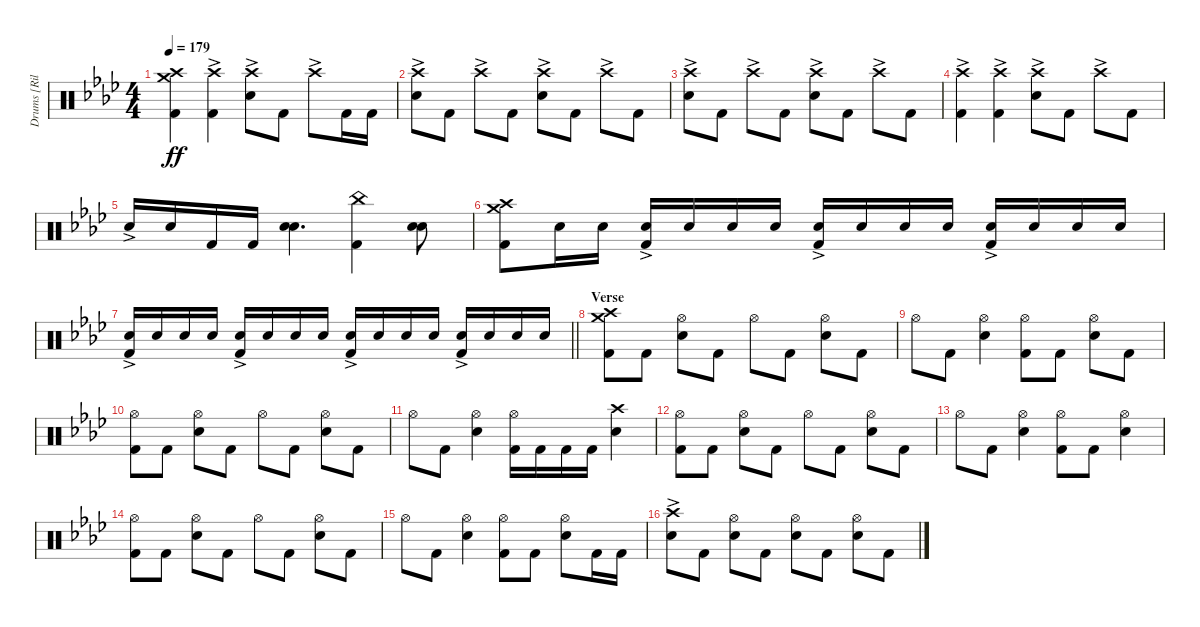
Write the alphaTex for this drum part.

\track ("Drums [Riley]" "Drums [Ril") {instrument percussion}
\staff {score}
\articulation defaults
\ts (4 4)
\tempo 179
\clef neutral
\ks ab
("Crash medium (hit)" "Crash high (hit)" "Kick (hit) 2").4{dy ff} ("Crash high (hit)"{ac} "Kick (hit) 2").4 ("Crash high (hit)"{ac} "Electric Snare (hit)").8 "Kick (hit) 2".8 "Crash high (hit)"{ac}.8 "Kick (hit) 2".16 "Kick (hit) 2".16 |
("Crash high (hit)"{ac} "Electric Snare (hit)").8 "Kick (hit) 2".8 "Crash high (hit)"{ac}.8 "Kick (hit) 2".8 ("Crash high (hit)"{ac} "Electric Snare (hit)").8 "Kick (hit) 2".8 "Crash high (hit)"{ac}.8 "Kick (hit) 2".8 |
("Crash high (hit)"{ac} "Electric Snare (hit)").8 "Kick (hit) 2".8 "Crash high (hit)"{ac}.8 "Kick (hit) 2".8 ("Crash high (hit)"{ac} "Electric Snare (hit)").8 "Kick (hit) 2".8 "Crash high (hit)"{ac}.8 "Kick (hit) 2".8 |
("Crash high (hit)"{ac} "Kick (hit) 2").4 ("Crash high (hit)"{ac} "Kick (hit) 2").4 ("Crash high (hit)"{ac} "Electric Snare (hit)").8 "Kick (hit) 2".8 "Crash high (hit)"{ac}.8 "Kick (hit) 2".8 |
"Electric Snare (hit)"{ac}.16 "Electric Snare (hit)".16 "Kick (hit) 2".16 "Kick (hit) 2".16 ("Electric Snare (hit)" "Electric Snare (hit)").4{d bu 60} ("China (hit)" "Kick (hit) 2").4 ("Electric Snare (hit)" "Electric Snare (hit)").8{bu 60} |
("Crash medium (hit)" "Crash high (hit)" "Kick (hit) 2").8 "Electric Snare (hit)".16{volume 7} "Electric Snare (hit)".16{volume 14} ("Electric Snare (hit)"{ac} "Kick (hit) 2"{ac}).16 "Electric Snare (hit)".16 "Electric Snare (hit)".16 "Electric Snare (hit)".16 ("Electric Snare (hit)"{ac} "Kick (hit) 2"{ac}).16 "Electric Snare (hit)".16 "Electric Snare (hit)".16 "Electric Snare (hit)".16 ("Electric Snare (hit)"{ac} "Kick (hit) 2"{ac}).16 "Electric Snare (hit)".16 "Electric Snare (hit)".16 "Electric Snare (hit)".16 |
\barLineRight lightlight
("Electric Snare (hit)"{ac} "Kick (hit) 2"{ac}).16 "Electric Snare (hit)".16 "Electric Snare (hit)".16 "Electric Snare (hit)".16 ("Electric Snare (hit)"{ac} "Kick (hit) 2"{ac}).16 "Electric Snare (hit)".16 "Electric Snare (hit)".16 "Electric Snare (hit)".16 ("Electric Snare (hit)"{ac} "Kick (hit) 2"{ac}).16 "Electric Snare (hit)".16 "Electric Snare (hit)".16 "Electric Snare (hit)".16 ("Electric Snare (hit)"{ac} "Kick (hit) 2"{ac}).16 "Electric Snare (hit)".16 "Electric Snare (hit)".16 "Electric Snare (hit)".16 |
\section ("" "Verse")
("Crash medium (hit)" "Crash high (hit)" "Kick (hit) 2").8 "Kick (hit) 2".8 ("Hi-Hat (open)" "Electric Snare (hit)").8 "Kick (hit) 2".8 "Hi-Hat (open)".8 "Kick (hit) 2".8 ("Hi-Hat (open)" "Electric Snare (hit)").8 "Kick (hit) 2".8 |
"Hi-Hat (open)".8 "Kick (hit) 2".8 ("Hi-Hat (open)" "Electric Snare (hit)").4 ("Hi-Hat (open)" "Kick (hit) 2").8 "Kick (hit) 2".8 ("Hi-Hat (open)" "Electric Snare (hit)").8 "Kick (hit) 2".8 |
("Hi-Hat (open)" "Kick (hit) 2").8 "Kick (hit) 2".8 ("Hi-Hat (open)" "Electric Snare (hit)").8 "Kick (hit) 2".8 "Hi-Hat (open)".8 "Kick (hit) 2".8 ("Hi-Hat (open)" "Electric Snare (hit)").8 "Kick (hit) 2".8 |
"Hi-Hat (open)".8 "Kick (hit) 2".8 ("Hi-Hat (open)" "Electric Snare (hit)").4 ("Hi-Hat (open)" "Kick (hit) 2").16 "Kick (hit) 2".16 "Kick (hit) 2".16 "Kick (hit) 2".16 ("Crash high (hit)" "Electric Snare (hit)").4 |
("Hi-Hat (open)" "Kick (hit) 2").8 "Kick (hit) 2".8 ("Hi-Hat (open)" "Electric Snare (hit)").8 "Kick (hit) 2".8 "Hi-Hat (open)".8 "Kick (hit) 2".8 ("Hi-Hat (open)" "Electric Snare (hit)").8 "Kick (hit) 2".8 |
"Hi-Hat (open)".8 "Kick (hit) 2".8 ("Hi-Hat (open)" "Electric Snare (hit)").4 ("Hi-Hat (open)" "Kick (hit) 2").8 "Kick (hit) 2".8 ("Hi-Hat (open)" "Electric Snare (hit)").4 |
("Hi-Hat (open)" "Kick (hit) 2").8 "Kick (hit) 2".8 ("Hi-Hat (open)" "Electric Snare (hit)").8 "Kick (hit) 2".8 "Hi-Hat (open)".8 "Kick (hit) 2".8 ("Hi-Hat (open)" "Electric Snare (hit)").8 "Kick (hit) 2".8 |
"Hi-Hat (open)".8 "Kick (hit) 2".8 ("Hi-Hat (open)" "Electric Snare (hit)").4 ("Hi-Hat (open)" "Kick (hit) 2").8 "Kick (hit) 2".8 ("Hi-Hat (open)" "Electric Snare (hit)").8 "Kick (hit) 2".16 "Kick (hit) 2".16 |
("Crash high (hit)"{ac} "Electric Snare (hit)").8 "Kick (hit) 2".8 ("Hi-Hat (open)" "Electric Snare (hit)").8 "Kick (hit) 2".8 ("Hi-Hat (open)" "Electric Snare (hit)").8 "Kick (hit) 2".8 ("Hi-Hat (open)" "Electric Snare (hit)").8 "Kick (hit) 2".8
